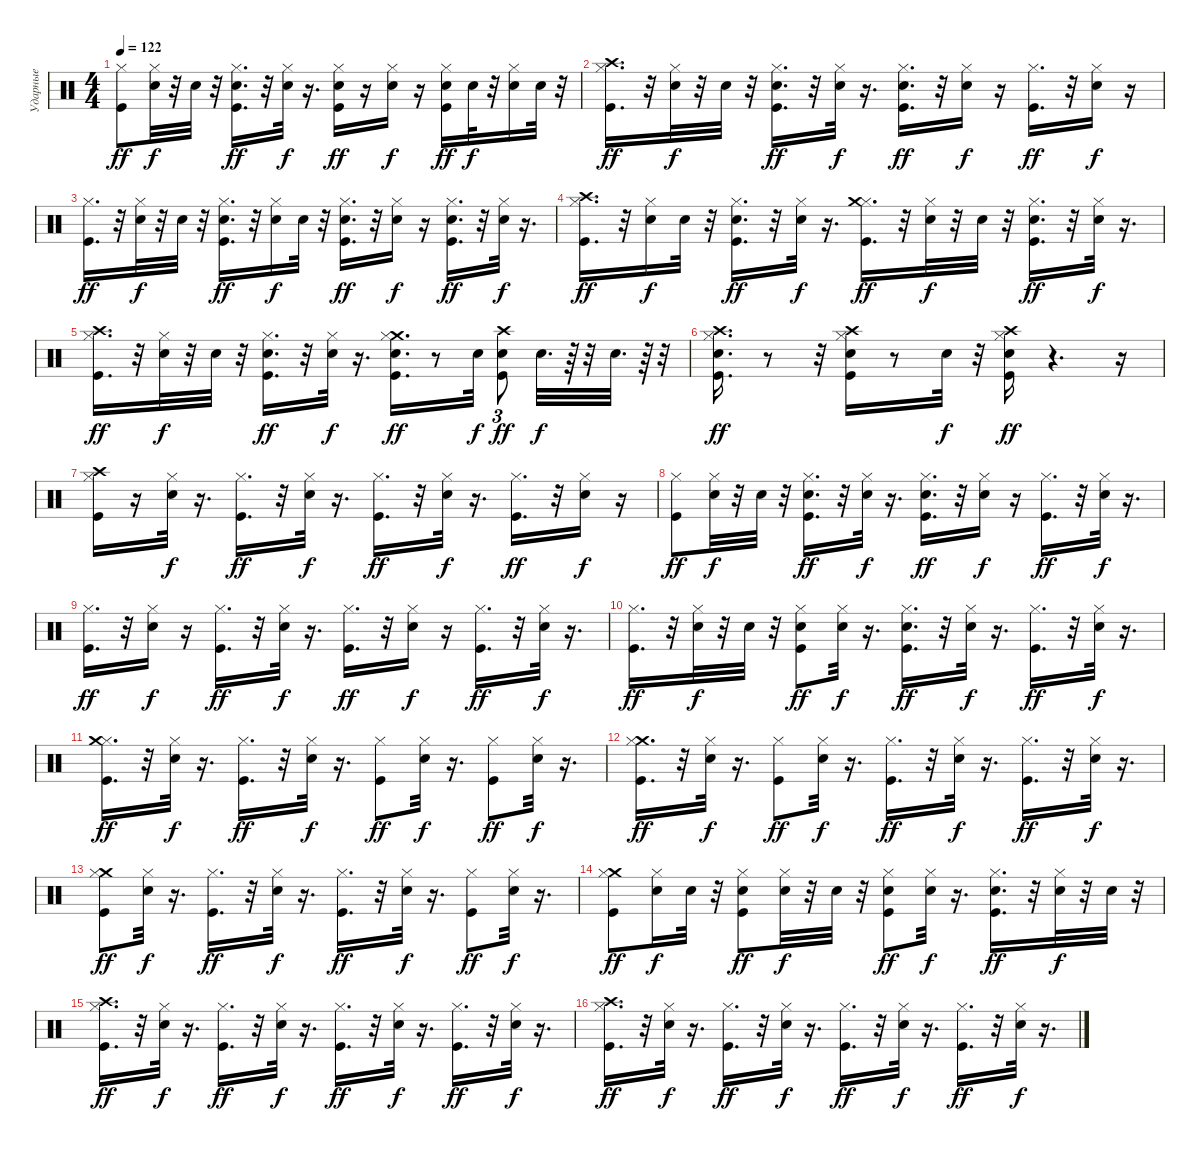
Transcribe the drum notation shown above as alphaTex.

\track ("Ударные" "Ударные") {instrument percussion}
\staff {score}
\articulation defaults
\ts (4 4)
\tempo 122
\clef neutral
\ks c
("Hi-Hat (closed)" "Kick (hit)").8{dy ff} ("Hi-Hat (closed)" "Electric Snare (hit)").32{dy f} r.32 "Electric Snare (hit)".32 r.32 ("Hi-Hat (closed)" "Kick (hit)" "Electric Snare (hit)").16{d dy ff} r.32 ("Hi-Hat (closed)" "Electric Snare (hit)").32{dy f} r.16{d} ("Hi-Hat (closed)" "Kick (hit)" "Electric Snare (hit)").16{dy ff} r.16 ("Hi-Hat (closed)" "Electric Snare (hit)").16{dy f} r.16 ("Electric Snare (hit)" "Hi-Hat (closed)" "Kick (hit)").16{dy ff} "Electric Snare (hit)".32{dy f} r.32 ("Electric Snare (hit)" "Hi-Hat (closed)").16 "Electric Snare (hit)".32 r.32 |
("Crash high (hit)" "Hi-Hat (closed)" "Kick (hit)").16{d dy ff} r.32 ("Hi-Hat (closed)" "Electric Snare (hit)").32{dy f} r.32 "Electric Snare (hit)".32 r.32 ("Electric Snare (hit)" "Hi-Hat (closed)" "Kick (hit)").16{d dy ff} r.32 ("Hi-Hat (closed)" "Electric Snare (hit)").32{dy f} r.16{d} ("Hi-Hat (closed)" "Kick (hit)" "Electric Snare (hit)").16{d dy ff} r.32 ("Hi-Hat (closed)" "Electric Snare (hit)").16{dy f} r.16 ("Hi-Hat (closed)" "Kick (hit)").16{d dy ff} r.32 ("Hi-Hat (closed)" "Electric Snare (hit)").16{dy f} r.16 |
("Hi-Hat (closed)" "Kick (hit)").16{d dy ff} r.32 ("Electric Snare (hit)" "Hi-Hat (closed)").32{dy f} r.32 "Electric Snare (hit)".32 r.32 ("Kick (hit)" "Hi-Hat (closed)" "Electric Snare (hit)").16{d dy ff} r.32 ("Hi-Hat (closed)" "Electric Snare (hit)").16{dy f} "Electric Snare (hit)".32 r.32 ("Electric Snare (hit)" "Hi-Hat (closed)" "Kick (hit)").16{d dy ff} r.32 ("Hi-Hat (closed)" "Electric Snare (hit)").16{dy f} r.16 ("Hi-Hat (closed)" "Kick (hit)" "Electric Snare (hit)").16{d dy ff} r.32 ("Hi-Hat (closed)" "Electric Snare (hit)").32{dy f} r.16{d} |
("Hi-Hat (closed)" "Kick (hit)" "Crash high (hit)").16{d dy ff} r.32 ("Electric Snare (hit)" "Hi-Hat (closed)").16{dy f} "Electric Snare (hit)".32 r.32 ("Electric Snare (hit)" "Kick (hit)" "Hi-Hat (closed)").16{d dy ff} r.32 ("Hi-Hat (closed)" "Electric Snare (hit)").32{dy f} r.16{d} ("Kick (hit)" "Hi-Hat (closed)" "Crash medium (hit)").16{d dy ff} r.32 ("Hi-Hat (closed)" "Electric Snare (hit)").32{dy f} r.32 "Electric Snare (hit)".32 r.32 ("Electric Snare (hit)" "Hi-Hat (closed)" "Kick (hit)").16{d dy ff} r.32 ("Hi-Hat (closed)" "Electric Snare (hit)").32{dy f} r.16{d} |
("Crash high (hit)" "Kick (hit)" "Hi-Hat (closed)").16{d dy ff} r.32 ("Electric Snare (hit)" "Hi-Hat (closed)").32{dy f} r.32 "Electric Snare (hit)".32 r.32 ("Electric Snare (hit)" "Kick (hit)" "Hi-Hat (closed)").16{d dy ff} r.32 ("Hi-Hat (closed)" "Electric Snare (hit)").32{dy f} r.16{d} ("Crash medium (hit)" "Kick (hit)" "Hi-Hat (closed)" "Electric Snare (hit)").16{d dy ff} r.8 "Electric Snare (hit)".32{dy f} ("Crash high (hit)" "Kick (hit)" "Electric Snare (hit)").8{tu (3 2) dy ff} "Electric Snare (hit)".32{d dy f} r.64 r.32 "Electric Snare (hit)".32{d} r.64 r.32 |
("Kick (hit)" "Hi-Hat (closed)" "Crash high (hit)" "Electric Snare (hit)").16{d dy ff} r.8 r.32 ("Electric Snare (hit)" "Crash high (hit)" "Hi-Hat (closed)" "Kick (hit)").16 r.8 "Electric Snare (hit)".32{dy f} r.32 ("Electric Snare (hit)" "Crash high (hit)" "Hi-Hat (closed)" "Kick (hit)").16{dy ff} r.4{d} r.16 |
("Kick (hit)" "Hi-Hat (closed)" "Crash high (hit)").16 r.16 ("Hi-Hat (closed)" "Electric Snare (hit)").32{dy f} r.16{d} ("Kick (hit)" "Hi-Hat (closed)").16{d dy ff} r.32 ("Electric Snare (hit)" "Hi-Hat (closed)").32{dy f} r.16{d} ("Kick (hit)" "Hi-Hat (closed)").16{d dy ff} r.32 ("Electric Snare (hit)" "Hi-Hat (closed)").32{dy f} r.16{d} ("Hi-Hat (closed)" "Kick (hit)").16{d dy ff} r.32 ("Electric Snare (hit)" "Hi-Hat (closed)").16{dy f} r.16 |
("Hi-Hat (closed)" "Kick (hit)").8{dy ff} ("Hi-Hat (closed)" "Electric Snare (hit)").32{dy f} r.32 "Electric Snare (hit)".32 r.32 ("Electric Snare (hit)" "Hi-Hat (closed)" "Kick (hit)").16{d dy ff} r.32 ("Hi-Hat (closed)" "Electric Snare (hit)").32{dy f} r.16{d} ("Electric Snare (hit)" "Hi-Hat (closed)" "Kick (hit)").16{d dy ff} r.32 ("Electric Snare (hit)" "Hi-Hat (closed)").16{dy f} r.16 ("Kick (hit)" "Hi-Hat (closed)").16{d dy ff} r.32 ("Electric Snare (hit)" "Hi-Hat (closed)").32{dy f} r.16{d} |
("Kick (hit)" "Hi-Hat (closed)").16{d dy ff} r.32 ("Electric Snare (hit)" "Hi-Hat (closed)").16{dy f} r.16 ("Kick (hit)" "Hi-Hat (closed)").16{d dy ff} r.32 ("Electric Snare (hit)" "Hi-Hat (closed)").32{dy f} r.16{d} ("Kick (hit)" "Hi-Hat (closed)").16{d dy ff} r.32 ("Electric Snare (hit)" "Hi-Hat (closed)").16{dy f} r.16 ("Kick (hit)" "Hi-Hat (closed)").16{d dy ff} r.32 ("Electric Snare (hit)" "Hi-Hat (closed)").32{dy f} r.16{d} |
("Hi-Hat (closed)" "Kick (hit)").16{d dy ff} r.32 ("Electric Snare (hit)" "Hi-Hat (closed)").32{dy f} r.32 "Electric Snare (hit)".32 r.32 ("Electric Snare (hit)" "Hi-Hat (closed)" "Kick (hit)").8{dy ff} ("Electric Snare (hit)" "Hi-Hat (closed)").32{dy f} r.16{d} ("Electric Snare (hit)" "Hi-Hat (closed)" "Kick (hit)").16{d dy ff} r.32 ("Electric Snare (hit)" "Hi-Hat (closed)").32{dy f} r.16{d} ("Hi-Hat (closed)" "Kick (hit)").16{d dy ff} r.32 ("Hi-Hat (closed)" "Electric Snare (hit)").32{dy f} r.16{d} |
("Hi-Hat (closed)" "Kick (hit)" "Crash medium (hit)").16{d dy ff} r.32 ("Hi-Hat (closed)" "Electric Snare (hit)").32{dy f} r.16{d} ("Hi-Hat (closed)" "Kick (hit)").16{d dy ff} r.32 ("Hi-Hat (closed)" "Electric Snare (hit)").32{dy f} r.16{d} ("Hi-Hat (closed)" "Kick (hit)").8{dy ff} ("Hi-Hat (closed)" "Electric Snare (hit)").32{dy f} r.16{d} ("Hi-Hat (closed)" "Kick (hit)").8{dy ff} ("Hi-Hat (closed)" "Electric Snare (hit)").32{dy f} r.16{d} |
("Crash medium (hit)" "Hi-Hat (closed)" "Kick (hit)").16{d dy ff} r.32 ("Hi-Hat (closed)" "Electric Snare (hit)").32{dy f} r.16{d} ("Hi-Hat (closed)" "Kick (hit)").8{dy ff} ("Electric Snare (hit)" "Hi-Hat (closed)").32{dy f} r.16{d} ("Hi-Hat (closed)" "Kick (hit)").16{d dy ff} r.32 ("Hi-Hat (closed)" "Electric Snare (hit)").32{dy f} r.16{d} ("Hi-Hat (closed)" "Kick (hit)").16{d dy ff} r.32 ("Hi-Hat (closed)" "Electric Snare (hit)").32{dy f} r.16{d} |
("Crash medium (hit)" "Hi-Hat (closed)" "Kick (hit)").8{dy ff} ("Hi-Hat (closed)" "Electric Snare (hit)").32{dy f} r.16{d} ("Hi-Hat (closed)" "Kick (hit)").16{d dy ff} r.32 ("Electric Snare (hit)" "Hi-Hat (closed)").32{dy f} r.16{d} ("Hi-Hat (closed)" "Kick (hit)").16{d dy ff} r.32 ("Electric Snare (hit)" "Hi-Hat (closed)").32{dy f} r.16{d} ("Hi-Hat (closed)" "Kick (hit)").8{dy ff} ("Hi-Hat (closed)" "Electric Snare (hit)").32{dy f} r.16{d} |
("Crash medium (hit)" "Hi-Hat (closed)" "Kick (hit)").8{dy ff} ("Hi-Hat (closed)" "Electric Snare (hit)").16{dy f} "Electric Snare (hit)".32 r.32 ("Hi-Hat (closed)" "Kick (hit)" "Electric Snare (hit)").8{dy ff} ("Electric Snare (hit)" "Hi-Hat (closed)").32{dy f} r.32 "Electric Snare (hit)".32 r.32 ("Electric Snare (hit)" "Hi-Hat (closed)" "Kick (hit)").8{dy ff} ("Electric Snare (hit)" "Hi-Hat (closed)").32{dy f} r.16{d} ("Electric Snare (hit)" "Kick (hit)" "Hi-Hat (closed)").16{d dy ff} r.32 ("Electric Snare (hit)" "Hi-Hat (closed)").32{dy f} r.32 "Electric Snare (hit)".32 r.32 |
("Crash high (hit)" "Kick (hit)" "Hi-Hat (closed)").16{d dy ff} r.32 ("Electric Snare (hit)" "Hi-Hat (closed)").32{dy f} r.16{d} ("Hi-Hat (closed)" "Kick (hit)").16{d dy ff} r.32 ("Hi-Hat (closed)" "Electric Snare (hit)").32{dy f} r.16{d} ("Hi-Hat (closed)" "Kick (hit)").16{d dy ff} r.32 ("Hi-Hat (closed)" "Electric Snare (hit)").32{dy f} r.16{d} ("Hi-Hat (closed)" "Kick (hit)").16{d dy ff} r.32 ("Hi-Hat (closed)" "Electric Snare (hit)").32{dy f} r.16{d} |
("Crash high (hit)" "Hi-Hat (closed)" "Kick (hit)").16{d dy ff} r.32 ("Hi-Hat (closed)" "Electric Snare (hit)").32{dy f} r.16{d} ("Hi-Hat (closed)" "Kick (hit)").16{d dy ff} r.32 ("Hi-Hat (closed)" "Electric Snare (hit)").32{dy f} r.16{d} ("Hi-Hat (closed)" "Kick (hit)").16{d dy ff} r.32 ("Hi-Hat (closed)" "Electric Snare (hit)").32{dy f} r.16{d} ("Hi-Hat (closed)" "Kick (hit)").16{d dy ff} r.32 ("Hi-Hat (closed)" "Electric Snare (hit)").32{dy f} r.16{d}
